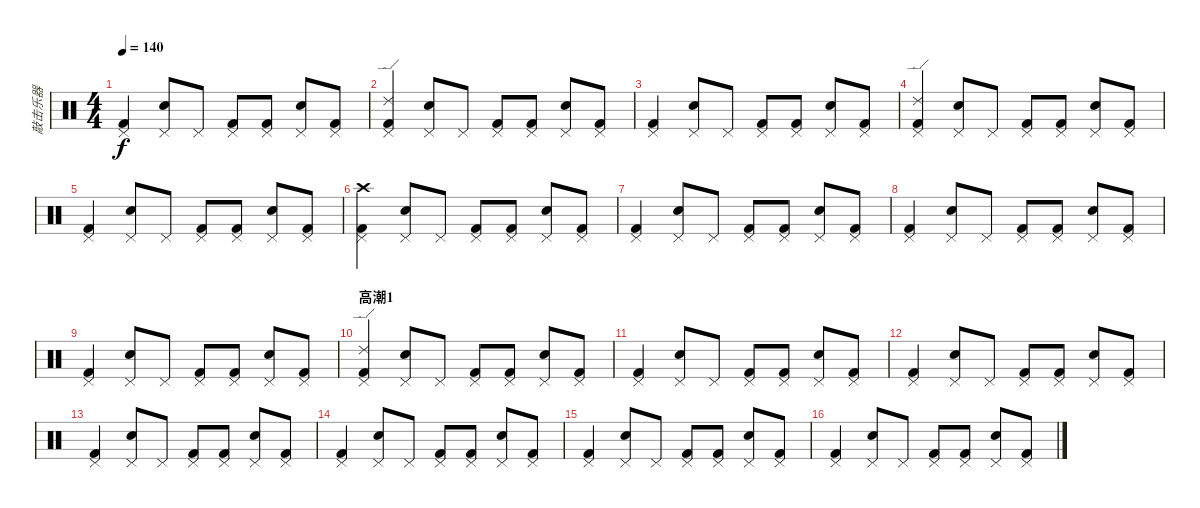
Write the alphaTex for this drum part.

\track ("敲击乐器" "敲击乐器") {instrument percussion}
\staff {score}
\articulation defaults
\ts (4 4)
\tempo 140
\clef neutral
\ks c
("Kick (hit) 2" "Pedal Hi-Hat (hit)").4{dy f} ("Snare (hit) 2" "Pedal Hi-Hat (hit)").8 "Pedal Hi-Hat (hit)".8 ("Kick (hit) 2" "Pedal Hi-Hat (hit)").8 ("Kick (hit) 2" "Pedal Hi-Hat (hit)").8 ("Snare (hit) 2" "Pedal Hi-Hat (hit)").8 ("Kick (hit) 2" "Pedal Hi-Hat (hit)").8 |
("Kick (hit) 2" "Pedal Hi-Hat (hit)" "Ride (edge) 2").4 ("Snare (hit) 2" "Pedal Hi-Hat (hit)").8 "Pedal Hi-Hat (hit)".8 ("Kick (hit) 2" "Pedal Hi-Hat (hit)").8 ("Kick (hit) 2" "Pedal Hi-Hat (hit)").8 ("Snare (hit) 2" "Pedal Hi-Hat (hit)").8 ("Kick (hit) 2" "Pedal Hi-Hat (hit)").8 |
("Kick (hit) 2" "Pedal Hi-Hat (hit)").4 ("Snare (hit) 2" "Pedal Hi-Hat (hit)").8 "Pedal Hi-Hat (hit)".8 ("Kick (hit) 2" "Pedal Hi-Hat (hit)").8 ("Kick (hit) 2" "Pedal Hi-Hat (hit)").8 ("Snare (hit) 2" "Pedal Hi-Hat (hit)").8 ("Kick (hit) 2" "Pedal Hi-Hat (hit)").8 |
("Kick (hit) 2" "Pedal Hi-Hat (hit)" "Ride (edge) 2").4 ("Snare (hit) 2" "Pedal Hi-Hat (hit)").8 "Pedal Hi-Hat (hit)".8 ("Kick (hit) 2" "Pedal Hi-Hat (hit)").8 ("Kick (hit) 2" "Pedal Hi-Hat (hit)").8 ("Snare (hit) 2" "Pedal Hi-Hat (hit)").8 ("Kick (hit) 2" "Pedal Hi-Hat (hit)").8 |
("Kick (hit) 2" "Pedal Hi-Hat (hit)").4 ("Snare (hit) 2" "Pedal Hi-Hat (hit)").8 "Pedal Hi-Hat (hit)".8 ("Kick (hit) 2" "Pedal Hi-Hat (hit)").8 ("Kick (hit) 2" "Pedal Hi-Hat (hit)").8 ("Snare (hit) 2" "Pedal Hi-Hat (hit)").8 ("Kick (hit) 2" "Pedal Hi-Hat (hit)").8 |
("Kick (hit) 2" "Pedal Hi-Hat (hit)" "Crash high (hit)").4 ("Snare (hit) 2" "Pedal Hi-Hat (hit)").8 "Pedal Hi-Hat (hit)".8 ("Kick (hit) 2" "Pedal Hi-Hat (hit)").8 ("Kick (hit) 2" "Pedal Hi-Hat (hit)").8 ("Snare (hit) 2" "Pedal Hi-Hat (hit)").8 ("Kick (hit) 2" "Pedal Hi-Hat (hit)").8 |
("Kick (hit) 2" "Pedal Hi-Hat (hit)").4 ("Snare (hit) 2" "Pedal Hi-Hat (hit)").8 "Pedal Hi-Hat (hit)".8 ("Kick (hit) 2" "Pedal Hi-Hat (hit)").8 ("Kick (hit) 2" "Pedal Hi-Hat (hit)").8 ("Snare (hit) 2" "Pedal Hi-Hat (hit)").8 ("Kick (hit) 2" "Pedal Hi-Hat (hit)").8 |
("Kick (hit) 2" "Pedal Hi-Hat (hit)").4 ("Snare (hit) 2" "Pedal Hi-Hat (hit)").8 "Pedal Hi-Hat (hit)".8 ("Kick (hit) 2" "Pedal Hi-Hat (hit)").8 ("Kick (hit) 2" "Pedal Hi-Hat (hit)").8 ("Snare (hit) 2" "Pedal Hi-Hat (hit)").8 ("Kick (hit) 2" "Pedal Hi-Hat (hit)").8 |
("Kick (hit) 2" "Pedal Hi-Hat (hit)").4 ("Snare (hit) 2" "Pedal Hi-Hat (hit)").8 "Pedal Hi-Hat (hit)".8 ("Kick (hit) 2" "Pedal Hi-Hat (hit)").8 ("Kick (hit) 2" "Pedal Hi-Hat (hit)").8 ("Snare (hit) 2" "Pedal Hi-Hat (hit)").8 ("Kick (hit) 2" "Pedal Hi-Hat (hit)").8 |
\section ("" "高潮1")
("Kick (hit) 2" "Pedal Hi-Hat (hit)" "Ride (edge) 2").4 ("Snare (hit) 2" "Pedal Hi-Hat (hit)").8 "Pedal Hi-Hat (hit)".8 ("Kick (hit) 2" "Pedal Hi-Hat (hit)").8 ("Kick (hit) 2" "Pedal Hi-Hat (hit)").8 ("Snare (hit) 2" "Pedal Hi-Hat (hit)").8 ("Kick (hit) 2" "Pedal Hi-Hat (hit)").8 |
("Kick (hit) 2" "Pedal Hi-Hat (hit)").4 ("Snare (hit) 2" "Pedal Hi-Hat (hit)").8 "Pedal Hi-Hat (hit)".8 ("Kick (hit) 2" "Pedal Hi-Hat (hit)").8 ("Kick (hit) 2" "Pedal Hi-Hat (hit)").8 ("Snare (hit) 2" "Pedal Hi-Hat (hit)").8 ("Kick (hit) 2" "Pedal Hi-Hat (hit)").8 |
("Kick (hit) 2" "Pedal Hi-Hat (hit)").4 ("Snare (hit) 2" "Pedal Hi-Hat (hit)").8 "Pedal Hi-Hat (hit)".8 ("Kick (hit) 2" "Pedal Hi-Hat (hit)").8 ("Kick (hit) 2" "Pedal Hi-Hat (hit)").8 ("Snare (hit) 2" "Pedal Hi-Hat (hit)").8 ("Kick (hit) 2" "Pedal Hi-Hat (hit)").8 |
("Kick (hit) 2" "Pedal Hi-Hat (hit)").4 ("Snare (hit) 2" "Pedal Hi-Hat (hit)").8 "Pedal Hi-Hat (hit)".8 ("Kick (hit) 2" "Pedal Hi-Hat (hit)").8 ("Kick (hit) 2" "Pedal Hi-Hat (hit)").8 ("Snare (hit) 2" "Pedal Hi-Hat (hit)").8 ("Kick (hit) 2" "Pedal Hi-Hat (hit)").8 |
("Kick (hit) 2" "Pedal Hi-Hat (hit)").4 ("Snare (hit) 2" "Pedal Hi-Hat (hit)").8 "Pedal Hi-Hat (hit)".8 ("Kick (hit) 2" "Pedal Hi-Hat (hit)").8 ("Kick (hit) 2" "Pedal Hi-Hat (hit)").8 ("Snare (hit) 2" "Pedal Hi-Hat (hit)").8 ("Kick (hit) 2" "Pedal Hi-Hat (hit)").8 |
("Kick (hit) 2" "Pedal Hi-Hat (hit)").4 ("Snare (hit) 2" "Pedal Hi-Hat (hit)").8 "Pedal Hi-Hat (hit)".8 ("Kick (hit) 2" "Pedal Hi-Hat (hit)").8 ("Kick (hit) 2" "Pedal Hi-Hat (hit)").8 ("Snare (hit) 2" "Pedal Hi-Hat (hit)").8 ("Kick (hit) 2" "Pedal Hi-Hat (hit)").8 |
("Kick (hit) 2" "Pedal Hi-Hat (hit)").4 ("Snare (hit) 2" "Pedal Hi-Hat (hit)").8 "Pedal Hi-Hat (hit)".8 ("Kick (hit) 2" "Pedal Hi-Hat (hit)").8 ("Kick (hit) 2" "Pedal Hi-Hat (hit)").8 ("Snare (hit) 2" "Pedal Hi-Hat (hit)").8 ("Kick (hit) 2" "Pedal Hi-Hat (hit)").8
